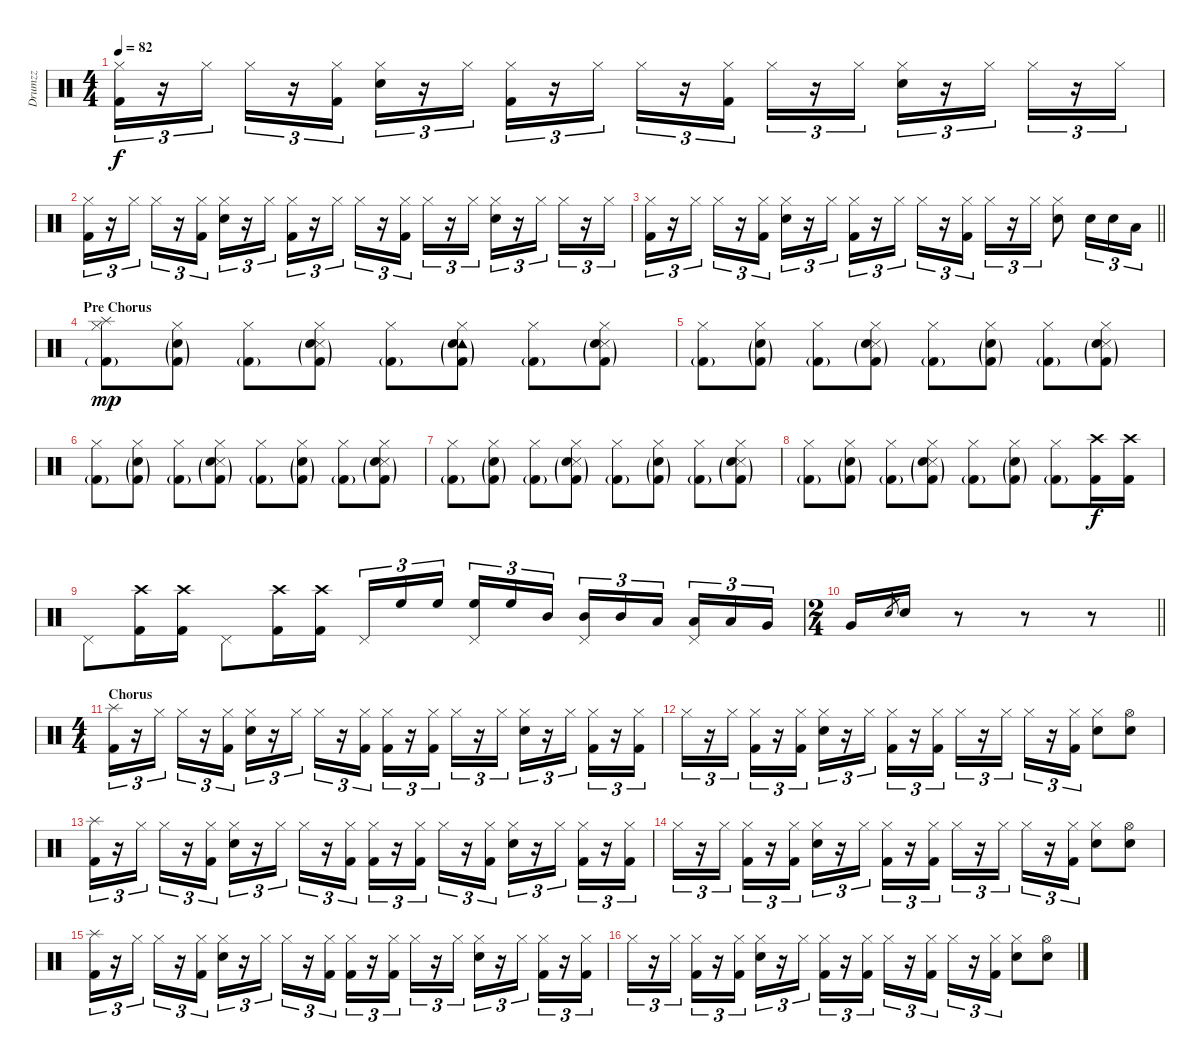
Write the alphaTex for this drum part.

\track ("Drumzz" "Drumzz") {instrument percussion}
\staff {score}
\articulation defaults
\ts (4 4)
\tempo 82
\clef neutral
\ks c
("Hi-Hat (closed)" "Kick (hit) 2").16{tu (3 2) dy f} r.16{tu (3 2)} "Hi-Hat (closed)".16{tu (3 2)} "Hi-Hat (closed)".16{tu (3 2)} r.16{tu (3 2)} ("Hi-Hat (closed)" "Kick (hit) 2").16{tu (3 2)} ("Hi-Hat (closed)" "Snare (hit) 2").16{tu (3 2)} r.16{tu (3 2)} "Hi-Hat (closed)".16{tu (3 2)} ("Hi-Hat (closed)" "Kick (hit) 2").16{tu (3 2)} r.16{tu (3 2)} "Hi-Hat (closed)".16{tu (3 2)} "Hi-Hat (closed)".16{tu (3 2)} r.16{tu (3 2)} ("Hi-Hat (closed)" "Kick (hit) 2").16{tu (3 2)} "Hi-Hat (closed)".16{tu (3 2)} r.16{tu (3 2)} "Hi-Hat (closed)".16{tu (3 2)} ("Hi-Hat (closed)" "Snare (hit) 2").16{tu (3 2)} r.16{tu (3 2)} "Hi-Hat (closed)".16{tu (3 2)} "Hi-Hat (closed)".16{tu (3 2)} r.16{tu (3 2)} "Hi-Hat (closed)".16{tu (3 2)} |
("Hi-Hat (closed)" "Kick (hit) 2").16{tu (3 2)} r.16{tu (3 2)} "Hi-Hat (closed)".16{tu (3 2)} "Hi-Hat (closed)".16{tu (3 2)} r.16{tu (3 2)} ("Hi-Hat (closed)" "Kick (hit) 2").16{tu (3 2)} ("Hi-Hat (closed)" "Snare (hit) 2").16{tu (3 2)} r.16{tu (3 2)} "Hi-Hat (closed)".16{tu (3 2)} ("Hi-Hat (closed)" "Kick (hit) 2").16{tu (3 2)} r.16{tu (3 2)} "Hi-Hat (closed)".16{tu (3 2)} "Hi-Hat (closed)".16{tu (3 2)} r.16{tu (3 2)} ("Hi-Hat (closed)" "Kick (hit) 2").16{tu (3 2)} "Hi-Hat (closed)".16{tu (3 2)} r.16{tu (3 2)} "Hi-Hat (closed)".16{tu (3 2)} ("Hi-Hat (closed)" "Snare (hit) 2").16{tu (3 2)} r.16{tu (3 2)} "Hi-Hat (closed)".16{tu (3 2)} "Hi-Hat (closed)".16{tu (3 2)} r.16{tu (3 2)} "Hi-Hat (closed)".16{tu (3 2)} |
\barLineRight lightlight
("Hi-Hat (closed)" "Kick (hit) 2").16{tu (3 2)} r.16{tu (3 2)} "Hi-Hat (closed)".16{tu (3 2)} "Hi-Hat (closed)".16{tu (3 2)} r.16{tu (3 2)} ("Hi-Hat (closed)" "Kick (hit) 2").16{tu (3 2)} ("Hi-Hat (closed)" "Snare (hit) 2").16{tu (3 2)} r.16{tu (3 2)} "Hi-Hat (closed)".16{tu (3 2)} ("Hi-Hat (closed)" "Kick (hit) 2").16{tu (3 2)} r.16{tu (3 2)} "Hi-Hat (closed)".16{tu (3 2)} "Hi-Hat (closed)".16{tu (3 2)} r.16{tu (3 2)} ("Hi-Hat (closed)" "Kick (hit) 2").16{tu (3 2)} "Hi-Hat (closed)".16{tu (3 2)} r.16{tu (3 2)} "Hi-Hat (closed)".16{tu (3 2)} ("Hi-Hat (closed)" "Snare (hit) 2").8 "Snare (hit) 2".16{tu (3 2)} "Snare (hit) 2".16{tu (3 2)} "Low Tom (hit)".16{tu (3 2)} |
\section ("" "Pre Chorus")
("Splash (hit)" "Hi-Hat (closed)" "Kick (hit) 2"{g}).8{dy mp} ("Hi-Hat (closed)" "Snare (hit) 2"{g} "Kick (hit) 2"{g}).8 ("Hi-Hat (closed)" "Kick (hit) 2"{g}).8 ("Snare (side stick) 3" "Hi-Hat (closed)" "Snare (hit) 2"{g} "Kick (hit) 2"{g}).8 ("Hi-Hat (closed)" "Kick (hit) 2"{g}).8 ("Tambourine (hit)" "Hi-Hat (closed)" "Snare (hit) 2"{g} "Kick (hit) 2"{g}).8 ("Hi-Hat (closed)" "Kick (hit) 2"{g}).8 ("Snare (side stick) 3" "Hi-Hat (closed)" "Snare (hit) 2"{g} "Kick (hit) 2"{g}).8 |
("Hi-Hat (closed)" "Kick (hit) 2"{g}).8 ("Hi-Hat (closed)" "Snare (hit) 2"{g} "Kick (hit) 2"{g}).8 ("Hi-Hat (closed)" "Kick (hit) 2"{g}).8 ("Snare (side stick) 3" "Hi-Hat (closed)" "Snare (hit) 2"{g} "Kick (hit) 2"{g}).8 ("Hi-Hat (closed)" "Kick (hit) 2"{g}).8 ("Hi-Hat (closed)" "Snare (hit) 2"{g} "Kick (hit) 2"{g}).8 ("Hi-Hat (closed)" "Kick (hit) 2"{g}).8 ("Snare (side stick) 3" "Hi-Hat (closed)" "Snare (hit) 2"{g} "Kick (hit) 2"{g}).8 |
("Hi-Hat (closed)" "Kick (hit) 2"{g}).8 ("Hi-Hat (closed)" "Snare (hit) 2"{g} "Kick (hit) 2"{g}).8 ("Hi-Hat (closed)" "Kick (hit) 2"{g}).8 ("Snare (side stick) 3" "Hi-Hat (closed)" "Snare (hit) 2"{g} "Kick (hit) 2"{g}).8 ("Hi-Hat (closed)" "Kick (hit) 2"{g}).8 ("Hi-Hat (closed)" "Snare (hit) 2"{g} "Kick (hit) 2"{g}).8 ("Hi-Hat (closed)" "Kick (hit) 2"{g}).8 ("Snare (side stick) 3" "Hi-Hat (closed)" "Snare (hit) 2"{g} "Kick (hit) 2"{g}).8 |
("Hi-Hat (closed)" "Kick (hit) 2"{g}).8 ("Hi-Hat (closed)" "Snare (hit) 2"{g} "Kick (hit) 2"{g}).8 ("Hi-Hat (closed)" "Kick (hit) 2"{g}).8 ("Snare (side stick) 3" "Hi-Hat (closed)" "Snare (hit) 2"{g} "Kick (hit) 2"{g}).8 ("Hi-Hat (closed)" "Kick (hit) 2"{g}).8 ("Hi-Hat (closed)" "Snare (hit) 2"{g} "Kick (hit) 2"{g}).8 ("Hi-Hat (closed)" "Kick (hit) 2"{g}).8 ("Snare (side stick) 3" "Hi-Hat (closed)" "Snare (hit) 2"{g} "Kick (hit) 2"{g}).8 |
("Hi-Hat (closed)" "Kick (hit) 2"{g}).8 ("Hi-Hat (closed)" "Snare (hit) 2"{g} "Kick (hit) 2"{g}).8 ("Hi-Hat (closed)" "Kick (hit) 2"{g}).8 ("Snare (side stick) 3" "Hi-Hat (closed)" "Snare (hit) 2"{g} "Kick (hit) 2"{g}).8 ("Hi-Hat (closed)" "Kick (hit) 2"{g}).8 ("Hi-Hat (closed)" "Snare (hit) 2"{g} "Kick (hit) 2"{g}).8 ("Hi-Hat (closed)" "Kick (hit) 2"{g}).8 ("Crash high (hit)" "Kick (hit) 2").16{dy f} ("Crash high (hit)" "Kick (hit) 2").16 |
"Pedal Hi-Hat (hit)".8 ("Crash high (hit)" "Kick (hit) 2").16 ("Crash high (hit)" "Kick (hit) 2").16 "Pedal Hi-Hat (hit)".8 ("Crash high (hit)" "Kick (hit) 2").16 ("Crash high (hit)" "Kick (hit) 2").16 "Pedal Hi-Hat (hit)".16{tu (3 2)} "High Floor Tom (hit)".16{tu (3 2)} "High Floor Tom (hit)".16{tu (3 2) beam splitsecondary} ("Pedal Hi-Hat (hit)" "High Floor Tom (hit)").16{tu (3 2)} "High Floor Tom (hit)".16{tu (3 2)} "Mid Tom (hit)".16{tu (3 2)} ("Pedal Hi-Hat (hit)" "Mid Tom (hit)").16{tu (3 2)} "Mid Tom (hit)".16{tu (3 2)} "Low Tom (hit)".16{tu (3 2) beam splitsecondary} ("Pedal Hi-Hat (hit)" "Low Tom (hit)").16{tu (3 2)} "Low Tom (hit)".16{tu (3 2)} "Very Low Tom (hit)".16{tu (3 2)} |
\ts (2 4)
\barLineRight lightlight "Very Low Tom (hit)".16 "Snare (hit) 2".8{gr} "Snare (hit) 2".16
r.8 r.8 r.8 |
\ts (4 4)
\section ("" "Chorus")
("Splash (hit)" "Kick (hit) 2").16{tu (3 2)} r.16{tu (3 2)} "Hi-Hat (closed)".16{tu (3 2)} "Hi-Hat (closed)".16{tu (3 2)} r.16{tu (3 2)} ("Hi-Hat (closed)" "Kick (hit) 2").16{tu (3 2)} ("Hi-Hat (closed)" "Snare (hit) 2").16{tu (3 2)} r.16{tu (3 2)} "Hi-Hat (closed)".16{tu (3 2)} "Hi-Hat (closed)".16{tu (3 2)} r.16{tu (3 2)} ("Hi-Hat (closed)" "Kick (hit) 2").16{tu (3 2)} ("Hi-Hat (closed)" "Kick (hit) 2").16{tu (3 2)} r.16{tu (3 2)} ("Hi-Hat (closed)" "Kick (hit) 2").16{tu (3 2)} "Hi-Hat (closed)".16{tu (3 2)} r.16{tu (3 2)} "Hi-Hat (closed)".16{tu (3 2)} ("Hi-Hat (closed)" "Snare (hit) 2").16{tu (3 2)} r.16{tu (3 2)} "Hi-Hat (closed)".16{tu (3 2)} ("Hi-Hat (closed)" "Kick (hit) 2").16{tu (3 2)} r.16{tu (3 2)} ("Hi-Hat (closed)" "Kick (hit) 2").16{tu (3 2)} |
"Hi-Hat (closed)".16{tu (3 2)} r.16{tu (3 2)} "Hi-Hat (closed)".16{tu (3 2)} ("Hi-Hat (closed)" "Kick (hit) 2").16{tu (3 2)} r.16{tu (3 2)} ("Hi-Hat (closed)" "Kick (hit) 2").16{tu (3 2)} ("Hi-Hat (closed)" "Snare (hit) 2").16{tu (3 2)} r.16{tu (3 2)} "Hi-Hat (closed)".16{tu (3 2)} ("Hi-Hat (closed)" "Kick (hit) 2").16{tu (3 2)} r.16{tu (3 2)} ("Hi-Hat (closed)" "Kick (hit) 2").16{tu (3 2)} "Hi-Hat (closed)".16{tu (3 2)} r.16{tu (3 2)} "Hi-Hat (closed)".16{tu (3 2)} "Hi-Hat (closed)".16{tu (3 2)} r.16{tu (3 2)} ("Hi-Hat (closed)" "Kick (hit) 2").16{tu (3 2)} ("Hi-Hat (closed)" "Snare (hit) 2").8 ("Hi-Hat (open)" "Snare (hit) 2").8 |
("Splash (hit)" "Kick (hit) 2").16{tu (3 2)} r.16{tu (3 2)} "Hi-Hat (closed)".16{tu (3 2)} "Hi-Hat (closed)".16{tu (3 2)} r.16{tu (3 2)} ("Hi-Hat (closed)" "Kick (hit) 2").16{tu (3 2)} ("Hi-Hat (closed)" "Snare (hit) 2").16{tu (3 2)} r.16{tu (3 2)} "Hi-Hat (closed)".16{tu (3 2)} "Hi-Hat (closed)".16{tu (3 2)} r.16{tu (3 2)} ("Hi-Hat (closed)" "Kick (hit) 2").16{tu (3 2)} ("Hi-Hat (closed)" "Kick (hit) 2").16{tu (3 2)} r.16{tu (3 2)} ("Hi-Hat (closed)" "Kick (hit) 2").16{tu (3 2)} "Hi-Hat (closed)".16{tu (3 2)} r.16{tu (3 2)} ("Hi-Hat (closed)" "Kick (hit) 2").16{tu (3 2)} ("Hi-Hat (closed)" "Snare (hit) 2").16{tu (3 2)} r.16{tu (3 2)} "Hi-Hat (closed)".16{tu (3 2)} ("Hi-Hat (closed)" "Kick (hit) 2").16{tu (3 2)} r.16{tu (3 2)} ("Hi-Hat (closed)" "Kick (hit) 2").16{tu (3 2)} |
"Hi-Hat (closed)".16{tu (3 2)} r.16{tu (3 2)} "Hi-Hat (closed)".16{tu (3 2)} ("Hi-Hat (closed)" "Kick (hit) 2").16{tu (3 2)} r.16{tu (3 2)} ("Hi-Hat (closed)" "Kick (hit) 2").16{tu (3 2)} ("Hi-Hat (closed)" "Snare (hit) 2").16{tu (3 2)} r.16{tu (3 2)} "Hi-Hat (closed)".16{tu (3 2)} ("Hi-Hat (closed)" "Kick (hit) 2").16{tu (3 2)} r.16{tu (3 2)} ("Hi-Hat (closed)" "Kick (hit) 2").16{tu (3 2)} "Hi-Hat (closed)".16{tu (3 2)} r.16{tu (3 2)} "Hi-Hat (closed)".16{tu (3 2)} "Hi-Hat (closed)".16{tu (3 2)} r.16{tu (3 2)} ("Hi-Hat (closed)" "Kick (hit) 2").16{tu (3 2)} ("Hi-Hat (closed)" "Snare (hit) 2").8 ("Hi-Hat (open)" "Snare (hit) 2").8 |
("Splash (hit)" "Kick (hit) 2").16{tu (3 2)} r.16{tu (3 2)} "Hi-Hat (closed)".16{tu (3 2)} "Hi-Hat (closed)".16{tu (3 2)} r.16{tu (3 2)} ("Hi-Hat (closed)" "Kick (hit) 2").16{tu (3 2)} ("Hi-Hat (closed)" "Snare (hit) 2").16{tu (3 2)} r.16{tu (3 2)} "Hi-Hat (closed)".16{tu (3 2)} "Hi-Hat (closed)".16{tu (3 2)} r.16{tu (3 2)} ("Hi-Hat (closed)" "Kick (hit) 2").16{tu (3 2)} ("Hi-Hat (closed)" "Kick (hit) 2").16{tu (3 2)} r.16{tu (3 2)} ("Hi-Hat (closed)" "Kick (hit) 2").16{tu (3 2)} "Hi-Hat (closed)".16{tu (3 2)} r.16{tu (3 2)} "Hi-Hat (closed)".16{tu (3 2)} ("Hi-Hat (closed)" "Snare (hit) 2").16{tu (3 2)} r.16{tu (3 2)} "Hi-Hat (closed)".16{tu (3 2)} ("Hi-Hat (closed)" "Kick (hit) 2").16{tu (3 2)} r.16{tu (3 2)} ("Hi-Hat (closed)" "Kick (hit) 2").16{tu (3 2)} |
"Hi-Hat (closed)".16{tu (3 2)} r.16{tu (3 2)} "Hi-Hat (closed)".16{tu (3 2)} ("Hi-Hat (closed)" "Kick (hit) 2").16{tu (3 2)} r.16{tu (3 2)} ("Hi-Hat (closed)" "Kick (hit) 2").16{tu (3 2)} ("Hi-Hat (closed)" "Snare (hit) 2").16{tu (3 2)} r.16{tu (3 2)} "Hi-Hat (closed)".16{tu (3 2)} ("Hi-Hat (closed)" "Kick (hit) 2").16{tu (3 2)} r.16{tu (3 2)} ("Hi-Hat (closed)" "Kick (hit) 2").16{tu (3 2)} "Hi-Hat (closed)".16{tu (3 2)} r.16{tu (3 2)} ("Hi-Hat (closed)" "Kick (hit) 2").16{tu (3 2)} "Hi-Hat (closed)".16{tu (3 2)} r.16{tu (3 2)} ("Hi-Hat (closed)" "Kick (hit) 2").16{tu (3 2)} ("Hi-Hat (closed)" "Snare (hit) 2").8 ("Hi-Hat (open)" "Snare (hit) 2").8
